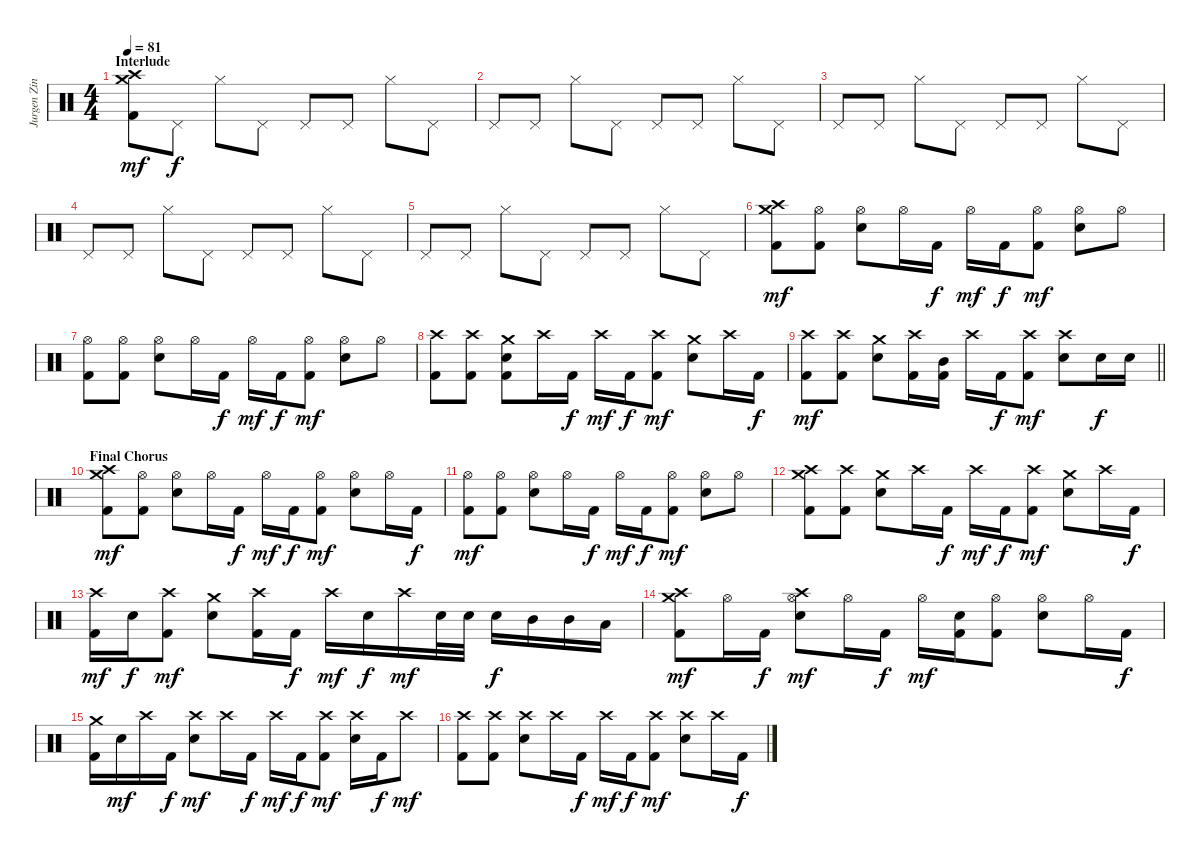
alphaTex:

\track ("Jurgen Zing" "Jurgen Zin") {instrument percussion}
\staff {score}
\articulation defaults
\ts (4 4)
\section ("" "Interlude")
\tempo 81
\clef neutral
\ks c
("Crash medium (hit)" "Crash high (hit)" "Kick (hit) 2").8{dy mf} "Pedal Hi-Hat (hit)".8{dy f} "Hi-Hat (closed)".8 "Pedal Hi-Hat (hit)".8 "Pedal Hi-Hat (hit)".8 "Pedal Hi-Hat (hit)".8 "Hi-Hat (closed)".8 "Pedal Hi-Hat (hit)".8 |
"Pedal Hi-Hat (hit)".8 "Pedal Hi-Hat (hit)".8 "Hi-Hat (closed)".8 "Pedal Hi-Hat (hit)".8 "Pedal Hi-Hat (hit)".8 "Pedal Hi-Hat (hit)".8 "Hi-Hat (closed)".8 "Pedal Hi-Hat (hit)".8 |
"Pedal Hi-Hat (hit)".8 "Pedal Hi-Hat (hit)".8 "Hi-Hat (closed)".8 "Pedal Hi-Hat (hit)".8 "Pedal Hi-Hat (hit)".8 "Pedal Hi-Hat (hit)".8 "Hi-Hat (closed)".8 "Pedal Hi-Hat (hit)".8 |
"Pedal Hi-Hat (hit)".8 "Pedal Hi-Hat (hit)".8 "Hi-Hat (closed)".8 "Pedal Hi-Hat (hit)".8 "Pedal Hi-Hat (hit)".8 "Pedal Hi-Hat (hit)".8 "Hi-Hat (closed)".8 "Pedal Hi-Hat (hit)".8 |
"Pedal Hi-Hat (hit)".8 "Pedal Hi-Hat (hit)".8 "Hi-Hat (closed)".8 "Pedal Hi-Hat (hit)".8 "Pedal Hi-Hat (hit)".8 "Pedal Hi-Hat (hit)".8 "Hi-Hat (closed)".8 "Pedal Hi-Hat (hit)".8 |
("Crash medium (hit)" "Crash high (hit)" "Kick (hit) 2").8{dy mf} ("Hi-Hat (open)" "Kick (hit) 2").8 ("Hi-Hat (open)" "Electric Snare (hit)").8 "Hi-Hat (open)".16 "Kick (hit) 2".16{dy f} "Hi-Hat (open)".16{dy mf} "Kick (hit) 2".16{dy f} ("Hi-Hat (open)" "Kick (hit) 2").8{dy mf} ("Hi-Hat (open)" "Electric Snare (hit)").8 "Hi-Hat (open)".8 |
("Hi-Hat (open)" "Kick (hit) 2").8 ("Hi-Hat (open)" "Kick (hit) 2").8 ("Hi-Hat (open)" "Electric Snare (hit)").8 "Hi-Hat (open)".16 "Kick (hit) 2".16{dy f} "Hi-Hat (open)".16{dy mf} "Kick (hit) 2".16{dy f} ("Hi-Hat (open)" "Kick (hit) 2").8{dy mf} ("Hi-Hat (open)" "Electric Snare (hit)").8 "Hi-Hat (open)".8 |
("Crash high (hit)" "Kick (hit) 2").8 ("Crash high (hit)" "Kick (hit) 2").8 ("Crash medium (hit)" "Electric Snare (hit)" "Kick (hit) 2").8 "Crash high (hit)".16 "Kick (hit) 2".16{dy f} "Crash high (hit)".16{dy mf} "Kick (hit) 2".16{dy f} ("Crash high (hit)" "Kick (hit) 2").8{dy mf} ("Crash medium (hit)" "Electric Snare (hit)").8 "Crash high (hit)".16 "Kick (hit) 2".16{dy f} |
\barLineRight lightlight
("Crash high (hit)" "Kick (hit) 2").8{dy mf} ("Crash high (hit)" "Kick (hit) 2").8 ("Crash medium (hit)" "Electric Snare (hit)").8 ("Crash high (hit)" "Kick (hit) 2").16 ("Mid Tom (hit)" "Kick (hit) 2").16 "Crash high (hit)".16 "Kick (hit) 2".16{dy f} ("Crash high (hit)" "Kick (hit) 2").8{dy mf} ("Crash high (hit)" "Electric Snare (hit)").8 "Electric Snare (hit)".16{dy f} "Electric Snare (hit)".16 |
\section ("" "Final Chorus")
("Crash medium (hit)" "Crash high (hit)" "Kick (hit) 2").8{dy mf} ("Hi-Hat (open)" "Kick (hit) 2").8 ("Hi-Hat (open)" "Electric Snare (hit)").8 "Hi-Hat (open)".16 "Kick (hit) 2".16{dy f} "Hi-Hat (open)".16{dy mf} "Kick (hit) 2".16{dy f} ("Hi-Hat (open)" "Kick (hit) 2").8{dy mf} ("Hi-Hat (open)" "Electric Snare (hit)").8 "Hi-Hat (open)".16 "Kick (hit) 2".16{dy f} |
("Hi-Hat (open)" "Kick (hit) 2").8{dy mf} ("Hi-Hat (open)" "Kick (hit) 2").8 ("Hi-Hat (open)" "Electric Snare (hit)").8 "Hi-Hat (open)".16 "Kick (hit) 2".16{dy f} "Hi-Hat (open)".16{dy mf} "Kick (hit) 2".16{dy f} ("Hi-Hat (open)" "Kick (hit) 2").8{dy mf} ("Hi-Hat (open)" "Electric Snare (hit)").8 "Hi-Hat (open)".8 |
("Crash medium (hit)" "Crash high (hit)" "Kick (hit) 2").8 ("Crash high (hit)" "Kick (hit) 2").8 ("Crash medium (hit)" "Electric Snare (hit)").8 "Crash high (hit)".16 "Kick (hit) 2".16{dy f} "Crash high (hit)".16{dy mf} "Kick (hit) 2".16{dy f} ("Crash high (hit)" "Kick (hit) 2").8{dy mf} ("Crash medium (hit)" "Electric Snare (hit)").8 "Crash high (hit)".16 "Kick (hit) 2".16{dy f} |
("Crash high (hit)" "Kick (hit) 2").16{dy mf} "Electric Snare (hit)".16{dy f} ("Crash high (hit)" "Kick (hit) 2").8{dy mf} ("Crash medium (hit)" "Electric Snare (hit)").8 ("Crash high (hit)" "Kick (hit) 2").16 "Kick (hit) 2".16{dy f} "Crash high (hit)".16{dy mf} "Electric Snare (hit)".16{dy f} "Crash high (hit)".16{dy mf} "Electric Snare (hit)".32 "Electric Snare (hit)".32 "Electric Snare (hit)".16{dy f} "Mid Tom (hit)".16 "Mid Tom (hit)".16 "Low Tom (hit)".16 |
("Crash medium (hit)" "Crash high (hit)" "Kick (hit) 2").8{dy mf} "Hi-Hat (open)".16 "Kick (hit) 2".16{dy f} ("Crash high (hit)" "Hi-Hat (open)" "Electric Snare (hit)").8{dy mf} "Hi-Hat (open)".16 "Kick (hit) 2".16{dy f} "Hi-Hat (open)".16{dy mf} ("Electric Snare (hit)" "Kick (hit) 2").16 ("Hi-Hat (open)" "Kick (hit) 2").8 ("Hi-Hat (open)" "Electric Snare (hit)").8 "Hi-Hat (open)".16 "Kick (hit) 2".16{dy f} |
("Crash medium (hit)" "Kick (hit) 2").16 "Electric Snare (hit)".16{dy mf} "Crash high (hit)".16 "Kick (hit) 2".16{dy f} ("Crash high (hit)" "Electric Snare (hit)").8{dy mf} "Crash high (hit)".16 "Kick (hit) 2".16{dy f} "Crash high (hit)".16{dy mf} "Kick (hit) 2".16{dy f} ("Crash high (hit)" "Kick (hit) 2").8{dy mf} ("Crash high (hit)" "Electric Snare (hit)").16 "Kick (hit) 2".16{dy f} "Crash high (hit)".8{dy mf} |
("Crash high (hit)" "Kick (hit) 2").8 ("Crash high (hit)" "Kick (hit) 2").8 ("Crash high (hit)" "Electric Snare (hit)").8 "Crash high (hit)".16 "Kick (hit) 2".16{dy f} "Crash high (hit)".16{dy mf} "Kick (hit) 2".16{dy f} ("Crash high (hit)" "Kick (hit) 2").8{dy mf} ("Crash high (hit)" "Electric Snare (hit)").8 "Crash high (hit)".16 "Kick (hit) 2".16{dy f}
